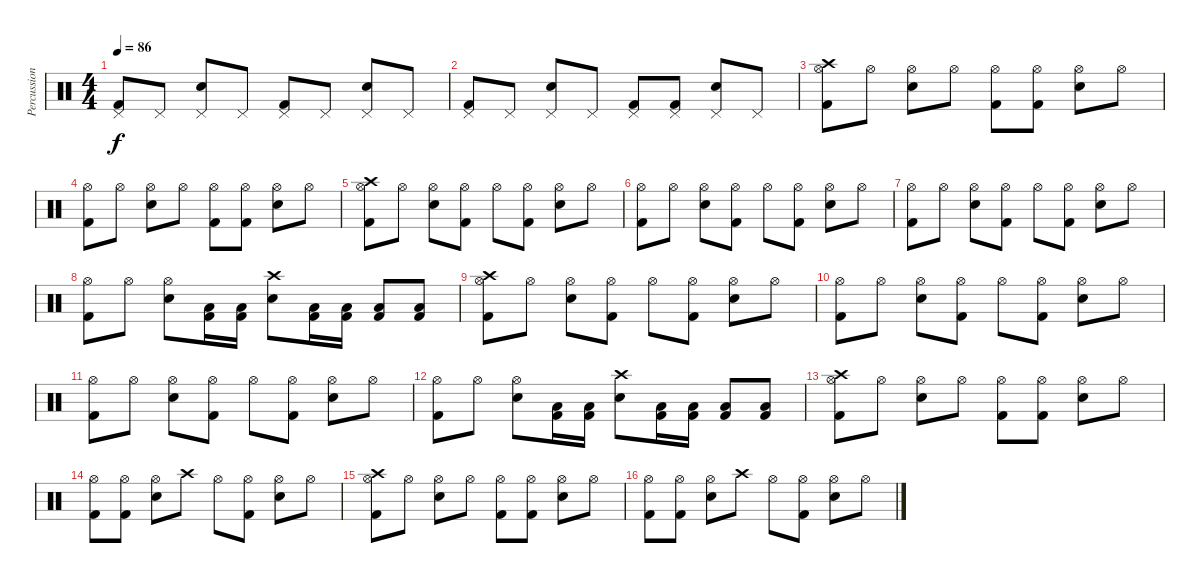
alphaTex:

\track ("Percussion" "Percussion") {instrument percussion}
\staff {score}
\articulation defaults
\ts (4 4)
\tempo 86
\clef neutral
\ks c
("Kick (hit) 2" "Pedal Hi-Hat (hit)").8{dy f} "Pedal Hi-Hat (hit)".8 ("Snare (hit) 2" "Pedal Hi-Hat (hit)").8 "Pedal Hi-Hat (hit)".8 ("Kick (hit) 2" "Pedal Hi-Hat (hit)").8 "Pedal Hi-Hat (hit)".8 ("Snare (hit) 2" "Pedal Hi-Hat (hit)").8 "Pedal Hi-Hat (hit)".8 |
("Kick (hit) 2" "Pedal Hi-Hat (hit)").8 "Pedal Hi-Hat (hit)".8 ("Snare (hit) 2" "Pedal Hi-Hat (hit)").8 "Pedal Hi-Hat (hit)".8 ("Kick (hit) 2" "Pedal Hi-Hat (hit)").8 ("Kick (hit) 2" "Pedal Hi-Hat (hit)").8 ("Snare (hit) 2" "Pedal Hi-Hat (hit)").8 "Pedal Hi-Hat (hit)".8 |
("Kick (hit) 2" "Hi-Hat (open)" "Crash high (hit)").8 "Hi-Hat (open)".8 ("Snare (hit) 2" "Hi-Hat (open)").8 "Hi-Hat (open)".8 ("Kick (hit) 2" "Hi-Hat (open)").8 ("Kick (hit) 2" "Hi-Hat (open)").8 ("Snare (hit) 2" "Hi-Hat (open)").8 "Hi-Hat (open)".8 |
("Kick (hit) 2" "Hi-Hat (open)").8 "Hi-Hat (open)".8 ("Snare (hit) 2" "Hi-Hat (open)").8 "Hi-Hat (open)".8 ("Kick (hit) 2" "Hi-Hat (open)").8 ("Kick (hit) 2" "Hi-Hat (open)").8 ("Snare (hit) 2" "Hi-Hat (open)").8 "Hi-Hat (open)".8 |
("Kick (hit) 2" "Hi-Hat (open)" "Crash high (hit)").8 "Hi-Hat (open)".8 ("Snare (hit) 2" "Hi-Hat (open)").8 ("Kick (hit) 2" "Hi-Hat (open)").8 "Hi-Hat (open)".8 ("Kick (hit) 2" "Hi-Hat (open)").8 ("Snare (hit) 2" "Hi-Hat (open)").8 "Hi-Hat (open)".8 |
("Kick (hit) 2" "Hi-Hat (open)").8 "Hi-Hat (open)".8 ("Snare (hit) 2" "Hi-Hat (open)").8 ("Kick (hit) 2" "Hi-Hat (open)").8 "Hi-Hat (open)".8 ("Kick (hit) 2" "Hi-Hat (open)").8 ("Snare (hit) 2" "Hi-Hat (open)").8 "Hi-Hat (open)".8 |
("Kick (hit) 2" "Hi-Hat (open)").8 "Hi-Hat (open)".8 ("Snare (hit) 2" "Hi-Hat (open)").8 ("Kick (hit) 2" "Hi-Hat (open)").8 "Hi-Hat (open)".8 ("Kick (hit) 2" "Hi-Hat (open)").8 ("Snare (hit) 2" "Hi-Hat (open)").8 "Hi-Hat (open)".8 |
("Kick (hit) 2" "Hi-Hat (open)").8 "Hi-Hat (open)".8 ("Snare (hit) 2" "Hi-Hat (open)").8 ("Low Tom (hit)" "Kick (hit) 2").16 ("Low Tom (hit)" "Kick (hit) 2").16 ("Snare (hit) 2" "Crash high (hit)").8 ("Low Tom (hit)" "Kick (hit) 2").16 ("Low Tom (hit)" "Kick (hit) 2").16 ("Low Tom (hit)" "Kick (hit) 2").8 ("Low Tom (hit)" "Kick (hit) 2").8 |
("Kick (hit) 2" "Hi-Hat (open)" "Crash high (hit)").8 "Hi-Hat (open)".8 ("Snare (hit) 2" "Hi-Hat (open)").8 ("Kick (hit) 2" "Hi-Hat (open)").8 "Hi-Hat (open)".8 ("Kick (hit) 2" "Hi-Hat (open)").8 ("Snare (hit) 2" "Hi-Hat (open)").8 "Hi-Hat (open)".8 |
("Kick (hit) 2" "Hi-Hat (open)").8 "Hi-Hat (open)".8 ("Snare (hit) 2" "Hi-Hat (open)").8 ("Kick (hit) 2" "Hi-Hat (open)").8 "Hi-Hat (open)".8 ("Kick (hit) 2" "Hi-Hat (open)").8 ("Snare (hit) 2" "Hi-Hat (open)").8 "Hi-Hat (open)".8 |
("Kick (hit) 2" "Hi-Hat (open)").8 "Hi-Hat (open)".8 ("Snare (hit) 2" "Hi-Hat (open)").8 ("Kick (hit) 2" "Hi-Hat (open)").8 "Hi-Hat (open)".8 ("Kick (hit) 2" "Hi-Hat (open)").8 ("Snare (hit) 2" "Hi-Hat (open)").8 "Hi-Hat (open)".8 |
("Kick (hit) 2" "Hi-Hat (open)").8 "Hi-Hat (open)".8 ("Snare (hit) 2" "Hi-Hat (open)").8 ("Low Tom (hit)" "Kick (hit) 2").16 ("Low Tom (hit)" "Kick (hit) 2").16 ("Snare (hit) 2" "Crash high (hit)").8 ("Low Tom (hit)" "Kick (hit) 2").16 ("Low Tom (hit)" "Kick (hit) 2").16 ("Low Tom (hit)" "Kick (hit) 2").8 ("Low Tom (hit)" "Kick (hit) 2").8 |
("Kick (hit) 2" "Hi-Hat (open)" "Crash high (hit)").8 "Hi-Hat (open)".8 ("Snare (hit) 2" "Hi-Hat (open)").8 "Hi-Hat (open)".8 ("Kick (hit) 2" "Hi-Hat (open)").8 ("Kick (hit) 2" "Hi-Hat (open)").8 ("Snare (hit) 2" "Hi-Hat (open)").8 "Hi-Hat (open)".8 |
("Kick (hit) 2" "Hi-Hat (open)").8 ("Kick (hit) 2" "Hi-Hat (open)").8 ("Snare (hit) 2" "Hi-Hat (open)").8 "Crash high (hit)".8 "Hi-Hat (open)".8 ("Kick (hit) 2" "Hi-Hat (open)").8 ("Snare (hit) 2" "Hi-Hat (open)").8 "Hi-Hat (open)".8 |
("Kick (hit) 2" "Hi-Hat (open)" "Crash high (hit)").8 "Hi-Hat (open)".8 ("Snare (hit) 2" "Hi-Hat (open)").8 "Hi-Hat (open)".8 ("Kick (hit) 2" "Hi-Hat (open)").8 ("Kick (hit) 2" "Hi-Hat (open)").8 ("Snare (hit) 2" "Hi-Hat (open)").8 "Hi-Hat (open)".8 |
("Kick (hit) 2" "Hi-Hat (open)").8 ("Kick (hit) 2" "Hi-Hat (open)").8 ("Snare (hit) 2" "Hi-Hat (open)").8 "Crash high (hit)".8 "Hi-Hat (open)".8 ("Kick (hit) 2" "Hi-Hat (open)").8 ("Snare (hit) 2" "Hi-Hat (open)").8 "Hi-Hat (open)".8
